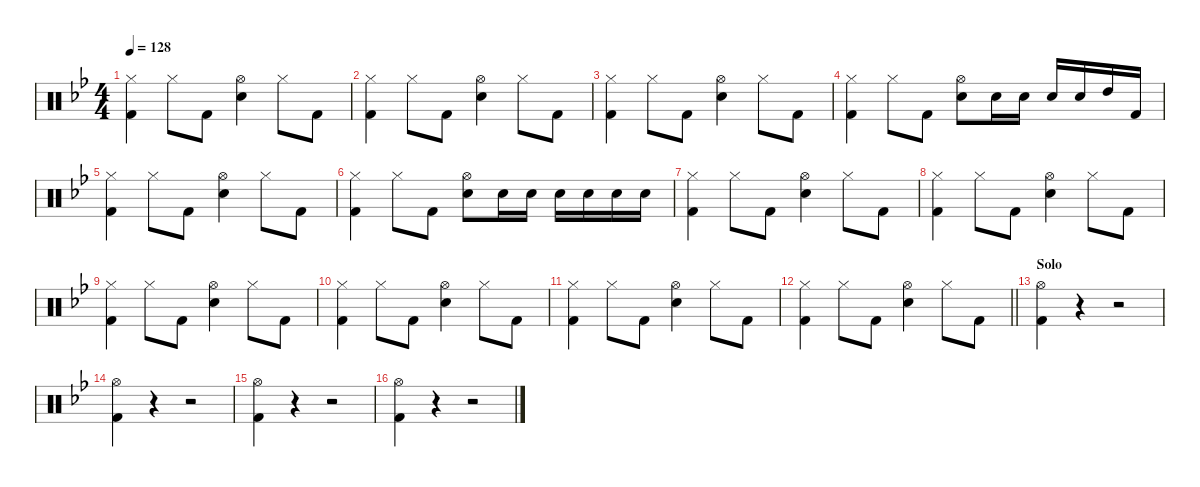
\defaultSystemsLayout 4
\hideDynamics
\bracketExtendMode nobrackets
\singleTrackTrackNamePolicy hidden
\multiTrackTrackNamePolicy hidden
\firstSystemTrackNameMode fullname
\firstSystemTrackNameOrientation horizontal
\otherSystemsTrackNameOrientation horizontal
\track ("Drums" "drm.") {instrument percussion}
\staff {score}
\articulation defaults
\ts (4 4)
\tempo 128
\clef neutral
\ks bb
("Hi-Hat (closed)"{acc forcenatural} "Kick (hit) 2"{acc forcenatural}).4{dy f beam Down} "Hi-Hat (closed)"{acc forcenatural}.8{beam Down} "Kick (hit) 2"{acc forcenatural}.8{beam Down} ("Hi-Hat (open)"{acc forcenatural} "Snare (hit) 2"{acc forcenatural}).4{beam Down} "Hi-Hat (closed)"{acc forcenatural}.8{beam Down} "Kick (hit) 2"{acc forcenatural}.8{beam Down} |
("Hi-Hat (closed)"{acc forcenatural} "Kick (hit) 2"{acc forcenatural}).4{beam Down} "Hi-Hat (closed)"{acc forcenatural}.8{beam Down} "Kick (hit) 2"{acc forcenatural}.8{beam Down} ("Hi-Hat (open)"{acc forcenatural} "Snare (hit) 2"{acc forcenatural}).4{beam Down} "Hi-Hat (closed)"{acc forcenatural}.8{beam Down} "Kick (hit) 2"{acc forcenatural}.8{beam Down} |
("Hi-Hat (closed)"{acc forcenatural} "Kick (hit) 2"{acc forcenatural}).4{beam Down} "Hi-Hat (closed)"{acc forcenatural}.8{beam Down} "Kick (hit) 2"{acc forcenatural}.8{beam Down} ("Hi-Hat (open)"{acc forcenatural} "Snare (hit) 2"{acc forcenatural}).4{beam Down} "Hi-Hat (closed)"{acc forcenatural}.8{beam Down} "Kick (hit) 2"{acc forcenatural}.8{beam Down} |
("Hi-Hat (closed)"{acc forcenatural} "Kick (hit) 2"{acc forcenatural}).4{beam Down} "Hi-Hat (closed)"{acc forcenatural}.8{beam Down} "Kick (hit) 2"{acc forcenatural}.8{beam Down} ("Hi-Hat (open)"{acc forcenatural} "Snare (hit) 2"{acc forcenatural}).8{beam Down} "Snare (hit) 2"{acc forcenatural}.16{beam Down} "Snare (hit) 2"{acc forcenatural}.16{beam Down} "Snare (hit) 2"{acc forcenatural}.16{beam Up} "Snare (hit) 2"{acc forcenatural}.16{beam Up} "High Tom (hit)"{acc forcenatural}.16{beam Up} "Kick (hit) 2"{acc forcenatural}.16{beam Up} |
("Hi-Hat (closed)"{acc forcenatural} "Kick (hit) 2"{acc forcenatural}).4{beam Down} "Hi-Hat (closed)"{acc forcenatural}.8{beam Down} "Kick (hit) 2"{acc forcenatural}.8{beam Down} ("Hi-Hat (open)"{acc forcenatural} "Snare (hit) 2"{acc forcenatural}).4{beam Down} "Hi-Hat (closed)"{acc forcenatural}.8{beam Down} "Kick (hit) 2"{acc forcenatural}.8{beam Down} |
("Hi-Hat (closed)"{acc forcenatural} "Kick (hit) 2"{acc forcenatural}).4{beam Down} "Hi-Hat (closed)"{acc forcenatural}.8{beam Down} "Kick (hit) 2"{acc forcenatural}.8{beam Down} ("Hi-Hat (open)"{acc forcenatural} "Snare (hit) 2"{acc forcenatural}).8{beam Down} "Snare (hit) 2"{acc forcenatural}.16{beam Down} "Snare (hit) 2"{acc forcenatural}.16{beam Down} "Snare (hit) 2"{acc forcenatural}.16{beam Down} "Snare (hit) 2"{acc forcenatural}.16{beam Down} "Snare (hit) 2"{acc forcenatural}.16{beam Down} "Snare (hit) 2"{acc forcenatural}.16{beam Down} |
("Hi-Hat (closed)"{acc forcenatural} "Kick (hit) 2"{acc forcenatural}).4{beam Down} "Hi-Hat (closed)"{acc forcenatural}.8{beam Down} "Kick (hit) 2"{acc forcenatural}.8{beam Down} ("Hi-Hat (open)"{acc forcenatural} "Snare (hit) 2"{acc forcenatural}).4{beam Down} "Hi-Hat (closed)"{acc forcenatural}.8{beam Down} "Kick (hit) 2"{acc forcenatural}.8{beam Down} |
("Hi-Hat (closed)"{acc forcenatural} "Kick (hit) 2"{acc forcenatural}).4{beam Down} "Hi-Hat (closed)"{acc forcenatural}.8{beam Down} "Kick (hit) 2"{acc forcenatural}.8{beam Down} ("Hi-Hat (open)"{acc forcenatural} "Snare (hit) 2"{acc forcenatural}).4{beam Down} "Hi-Hat (closed)"{acc forcenatural}.8{beam Down} "Kick (hit) 2"{acc forcenatural}.8{beam Down} |
("Hi-Hat (closed)"{acc forcenatural} "Kick (hit) 2"{acc forcenatural}).4{beam Down} "Hi-Hat (closed)"{acc forcenatural}.8{beam Down} "Kick (hit) 2"{acc forcenatural}.8{beam Down} ("Hi-Hat (open)"{acc forcenatural} "Snare (hit) 2"{acc forcenatural}).4{beam Down} "Hi-Hat (closed)"{acc forcenatural}.8{beam Down} "Kick (hit) 2"{acc forcenatural}.8{beam Down} |
("Hi-Hat (closed)"{acc forcenatural} "Kick (hit) 2"{acc forcenatural}).4{beam Down} "Hi-Hat (closed)"{acc forcenatural}.8{beam Down} "Kick (hit) 2"{acc forcenatural}.8{beam Down} ("Hi-Hat (open)"{acc forcenatural} "Snare (hit) 2"{acc forcenatural}).4{beam Down} "Hi-Hat (closed)"{acc forcenatural}.8{beam Down} "Kick (hit) 2"{acc forcenatural}.8{beam Down} |
("Hi-Hat (closed)"{acc forcenatural} "Kick (hit) 2"{acc forcenatural}).4{beam Down} "Hi-Hat (closed)"{acc forcenatural}.8{beam Down} "Kick (hit) 2"{acc forcenatural}.8{beam Down} ("Hi-Hat (open)"{acc forcenatural} "Snare (hit) 2"{acc forcenatural}).4{beam Down} "Hi-Hat (closed)"{acc forcenatural}.8{beam Down} "Kick (hit) 2"{acc forcenatural}.8{beam Down} |
\barLineRight lightlight
("Hi-Hat (closed)"{acc forcenatural} "Kick (hit) 2"{acc forcenatural}).4{beam Down} "Hi-Hat (closed)"{acc forcenatural}.8{beam Down} "Kick (hit) 2"{acc forcenatural}.8{beam Down} ("Hi-Hat (open)"{acc forcenatural} "Snare (hit) 2"{acc forcenatural}).4{beam Down} "Hi-Hat (closed)"{acc forcenatural}.8{beam Down} "Kick (hit) 2"{acc forcenatural}.8{beam Down} |
\section ("" "Solo")
("Hi-Hat (open)"{acc forcenatural} "Kick (hit) 2"{acc forcenatural}).4{beam Down} r.4{beam Down} r.2{beam Down} |
("Hi-Hat (open)"{acc forcenatural} "Kick (hit) 2"{acc forcenatural}).4{beam Down} r.4{beam Down} r.2{beam Down} |
("Hi-Hat (open)"{acc forcenatural} "Kick (hit) 2"{acc forcenatural}).4{beam Down} r.4{beam Down} r.2{beam Down} |
("Hi-Hat (open)"{acc forcenatural} "Kick (hit) 2"{acc forcenatural}).4{beam Down} r.4{beam Down} r.2{beam Down}
